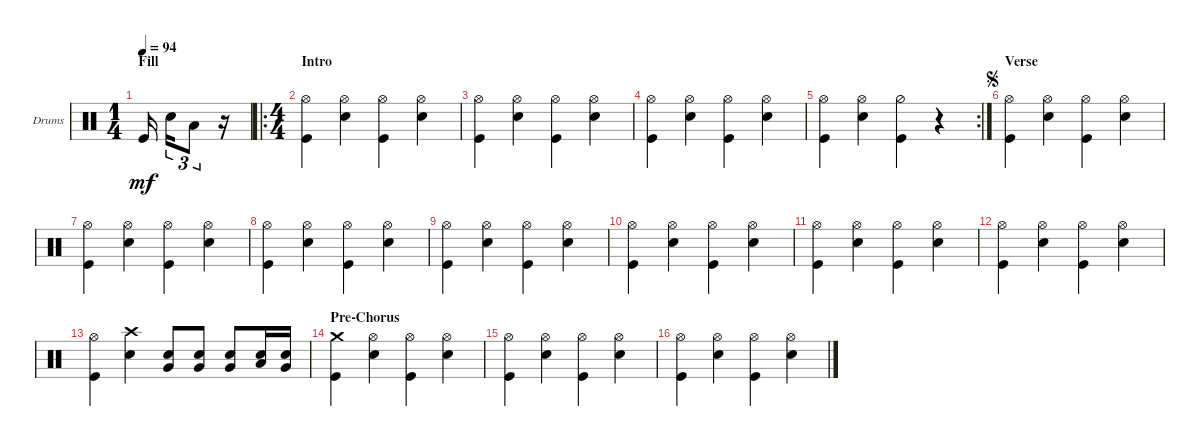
\defaultSystemsLayout 4
\bracketExtendMode groupsimilarinstruments
\firstSystemTrackNameOrientation horizontal
\otherSystemsTrackNameOrientation horizontal
\track ("Drumkit" "Drums") {instrument percussion}
\staff {score}
\articulation defaults
\ts (1 4)
\section ("" "Fill")
\tempo 94
\clef neutral
\ks c "Kick (hit)".16{dy mf} "Snare (hit) 2".16{tu (3 2)} "Low Tom (hit)".8{tu (3 2)}
r.16 |
\ro
\ts (4 4)
\section ("" "Intro")
("Kick (hit)" "Hi-Hat (open)").4 ("Snare (hit) 2" "Hi-Hat (open)").4 ("Kick (hit)" "Hi-Hat (open)").4 ("Snare (hit) 2" "Hi-Hat (open)").4 |
("Kick (hit)" "Hi-Hat (open)").4 ("Snare (hit) 2" "Hi-Hat (open)").4 ("Kick (hit)" "Hi-Hat (open)").4 ("Snare (hit) 2" "Hi-Hat (open)").4 |
("Kick (hit)" "Hi-Hat (open)").4 ("Snare (hit) 2" "Hi-Hat (open)").4 ("Kick (hit)" "Hi-Hat (open)").4 ("Snare (hit) 2" "Hi-Hat (open)").4 |
\rc 2
("Kick (hit)" "Hi-Hat (open)").4 ("Snare (hit) 2" "Hi-Hat (open)").4 ("Kick (hit)" "Hi-Hat (half)").4 r.4 |
\section ("" "Verse")
\jump segno
("Kick (hit)" "Hi-Hat (open)").4 ("Snare (hit) 2" "Hi-Hat (open)").4 ("Kick (hit)" "Hi-Hat (open)").4 ("Snare (hit) 2" "Hi-Hat (open)").4 |
("Kick (hit)" "Hi-Hat (open)").4 ("Snare (hit) 2" "Hi-Hat (open)").4 ("Kick (hit)" "Hi-Hat (open)").4 ("Snare (hit) 2" "Hi-Hat (open)").4 |
("Kick (hit)" "Hi-Hat (open)").4 ("Snare (hit) 2" "Hi-Hat (open)").4 ("Kick (hit)" "Hi-Hat (open)").4 ("Snare (hit) 2" "Hi-Hat (open)").4 |
("Kick (hit)" "Hi-Hat (open)").4 ("Snare (hit) 2" "Hi-Hat (open)").4 ("Kick (hit)" "Hi-Hat (open)").4 ("Snare (hit) 2" "Hi-Hat (open)").4 |
("Kick (hit)" "Hi-Hat (open)").4 ("Snare (hit) 2" "Hi-Hat (open)").4 ("Kick (hit)" "Hi-Hat (open)").4 ("Snare (hit) 2" "Hi-Hat (open)").4 |
("Kick (hit)" "Hi-Hat (open)").4 ("Snare (hit) 2" "Hi-Hat (open)").4 ("Kick (hit)" "Hi-Hat (open)").4 ("Snare (hit) 2" "Hi-Hat (open)").4 |
("Kick (hit)" "Hi-Hat (open)").4 ("Snare (hit) 2" "Hi-Hat (open)").4 ("Kick (hit)" "Hi-Hat (open)").4 ("Snare (hit) 2" "Hi-Hat (open)").4 |
("Kick (hit)" "Hi-Hat (open)").4 ("Snare (hit) 2" "Crash high (hit)").4 ("Snare (hit) 2" "Very Low Tom (hit)").8 ("Snare (hit) 2" "Very Low Tom (hit)").8 ("Snare (hit) 2" "Very Low Tom (hit)").8 ("Low Tom (hit)" "Snare (hit) 2").16 ("Very Low Tom (hit)" "Snare (hit) 2").16 |
\section ("" "Pre-Chorus")
("Kick (hit)" "Crash medium (hit)").4 ("Snare (hit) 2" "Hi-Hat (open)").4 ("Kick (hit)" "Hi-Hat (open)").4 ("Snare (hit) 2" "Hi-Hat (open)").4 |
("Kick (hit)" "Hi-Hat (open)").4 ("Snare (hit) 2" "Hi-Hat (open)").4 ("Kick (hit)" "Hi-Hat (open)").4 ("Snare (hit) 2" "Hi-Hat (open)").4 |
("Kick (hit)" "Hi-Hat (open)").4 ("Snare (hit) 2" "Hi-Hat (open)").4 ("Kick (hit)" "Hi-Hat (open)").4 ("Snare (hit) 2" "Hi-Hat (open)").4
